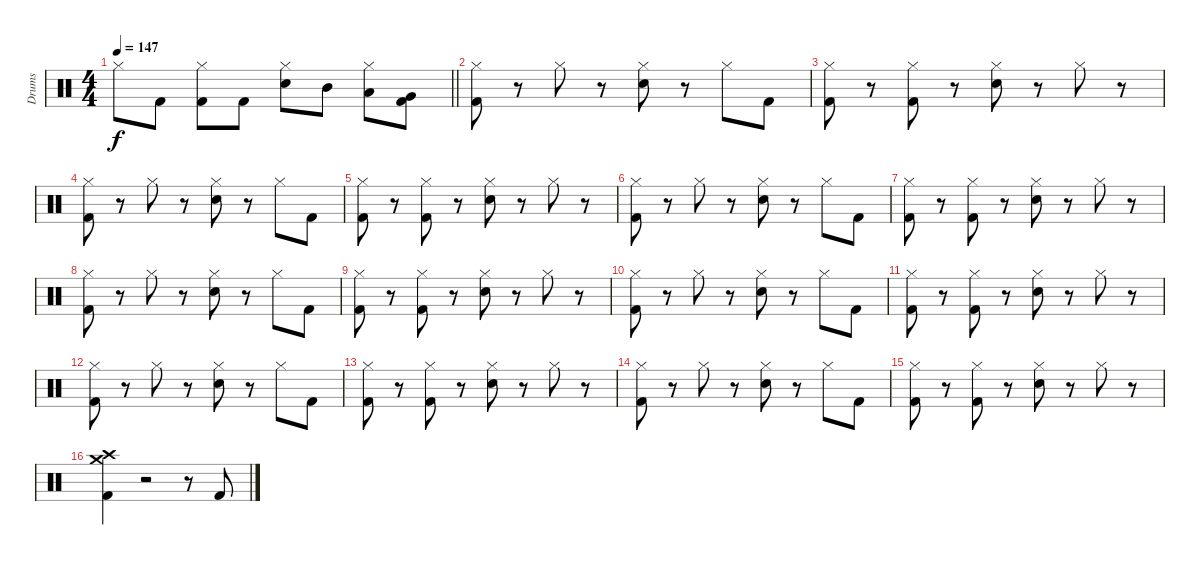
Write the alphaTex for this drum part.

\track ("Drums" "Drums") {instrument percussion}
\staff {score}
\articulation defaults
\ts (4 4)
\tempo 147
\clef neutral
\barLineRight lightlight
\ks c "Hi-Hat (closed)".8{dy f} "Kick (hit) 2".8
("Hi-Hat (closed)" "Kick (hit) 2").8 "Kick (hit) 2".8 ("Hi-Hat (closed)" "Electric Snare (hit)").8 "Mid Tom (hit)".8 ("Hi-Hat (closed)" "Low Tom (hit)").8 ("Very Low Tom (hit)" "Kick (hit) 2").8 |
("Hi-Hat (closed)" "Kick (hit) 2").8 r.8 "Hi-Hat (closed)".8 r.8 ("Hi-Hat (closed)" "Electric Snare (hit)").8 r.8 "Hi-Hat (closed)".8 "Kick (hit) 2".8 |
("Hi-Hat (closed)" "Kick (hit) 2").8 r.8 ("Hi-Hat (closed)" "Kick (hit) 2").8 r.8 ("Hi-Hat (closed)" "Electric Snare (hit)").8 r.8 "Hi-Hat (closed)".8 r.8 |
("Hi-Hat (closed)" "Kick (hit) 2").8 r.8 "Hi-Hat (closed)".8 r.8 ("Hi-Hat (closed)" "Electric Snare (hit)").8 r.8 "Hi-Hat (closed)".8 "Kick (hit) 2".8 |
("Hi-Hat (closed)" "Kick (hit) 2").8 r.8 ("Hi-Hat (closed)" "Kick (hit) 2").8 r.8 ("Hi-Hat (closed)" "Electric Snare (hit)").8 r.8 "Hi-Hat (closed)".8 r.8 |
("Hi-Hat (closed)" "Kick (hit) 2").8 r.8 "Hi-Hat (closed)".8 r.8 ("Hi-Hat (closed)" "Electric Snare (hit)").8 r.8 "Hi-Hat (closed)".8 "Kick (hit) 2".8 |
("Hi-Hat (closed)" "Kick (hit) 2").8 r.8 ("Hi-Hat (closed)" "Kick (hit) 2").8 r.8 ("Hi-Hat (closed)" "Electric Snare (hit)").8 r.8 "Hi-Hat (closed)".8 r.8 |
("Hi-Hat (closed)" "Kick (hit) 2").8 r.8 "Hi-Hat (closed)".8 r.8 ("Hi-Hat (closed)" "Electric Snare (hit)").8 r.8 "Hi-Hat (closed)".8 "Kick (hit) 2".8 |
("Hi-Hat (closed)" "Kick (hit) 2").8 r.8 ("Hi-Hat (closed)" "Kick (hit) 2").8 r.8 ("Hi-Hat (closed)" "Electric Snare (hit)").8 r.8 "Hi-Hat (closed)".8 r.8 |
("Hi-Hat (closed)" "Kick (hit) 2").8 r.8 "Hi-Hat (closed)".8 r.8 ("Hi-Hat (closed)" "Electric Snare (hit)").8 r.8 "Hi-Hat (closed)".8 "Kick (hit) 2".8 |
("Hi-Hat (closed)" "Kick (hit) 2").8 r.8 ("Hi-Hat (closed)" "Kick (hit) 2").8 r.8 ("Hi-Hat (closed)" "Electric Snare (hit)").8 r.8 "Hi-Hat (closed)".8 r.8 |
("Hi-Hat (closed)" "Kick (hit) 2").8 r.8 "Hi-Hat (closed)".8 r.8 ("Hi-Hat (closed)" "Electric Snare (hit)").8 r.8 "Hi-Hat (closed)".8 "Kick (hit) 2".8 |
("Hi-Hat (closed)" "Kick (hit) 2").8 r.8 ("Hi-Hat (closed)" "Kick (hit) 2").8 r.8 ("Hi-Hat (closed)" "Electric Snare (hit)").8 r.8 "Hi-Hat (closed)".8 r.8 |
("Hi-Hat (closed)" "Kick (hit) 2").8 r.8 "Hi-Hat (closed)".8 r.8 ("Hi-Hat (closed)" "Electric Snare (hit)").8 r.8 "Hi-Hat (closed)".8 "Kick (hit) 2".8 |
("Hi-Hat (closed)" "Kick (hit) 2").8 r.8 ("Hi-Hat (closed)" "Kick (hit) 2").8 r.8 ("Hi-Hat (closed)" "Electric Snare (hit)").8 r.8 "Hi-Hat (closed)".8 r.8 |
("Crash high (hit)" "Crash medium (hit)" "Kick (hit) 2").4 r.2 r.8 "Kick (hit) 2".8
